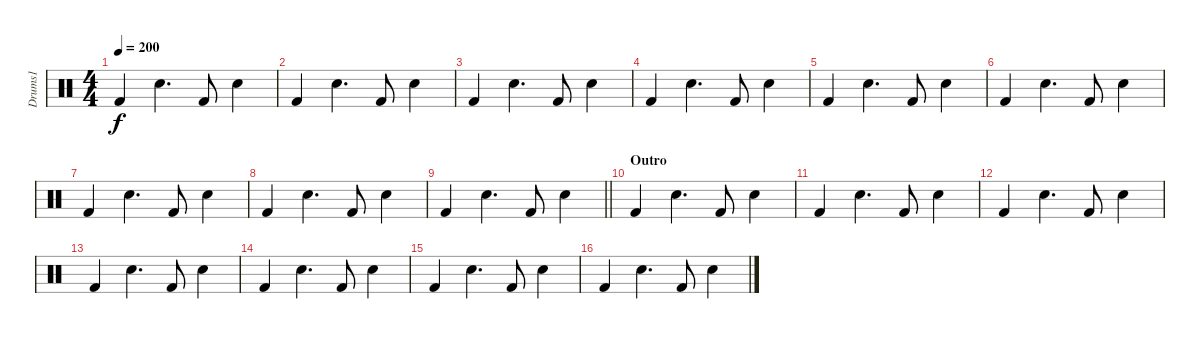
\track ("Drums1" "Drums1") {instrument percussion}
\staff {score}
\articulation defaults
\ts (4 4)
\tempo 200
\clef neutral
\ks c "Kick (hit) 2".4{dy f} "Snare (hit) 2".4{d} "Kick (hit) 2".8 "Snare (hit) 2".4
|
"Kick (hit) 2".4 "Snare (hit) 2".4{d} "Kick (hit) 2".8 "Snare (hit) 2".4 |
"Kick (hit) 2".4 "Snare (hit) 2".4{d} "Kick (hit) 2".8 "Snare (hit) 2".4 |
"Kick (hit) 2".4 "Snare (hit) 2".4{d} "Kick (hit) 2".8 "Snare (hit) 2".4 |
"Kick (hit) 2".4 "Snare (hit) 2".4{d} "Kick (hit) 2".8 "Snare (hit) 2".4 |
"Kick (hit) 2".4 "Snare (hit) 2".4{d} "Kick (hit) 2".8 "Snare (hit) 2".4 |
"Kick (hit) 2".4 "Snare (hit) 2".4{d} "Kick (hit) 2".8 "Snare (hit) 2".4 |
"Kick (hit) 2".4 "Snare (hit) 2".4{d} "Kick (hit) 2".8 "Snare (hit) 2".4 |
\barLineRight lightlight "Kick (hit) 2".4 "Snare (hit) 2".4{d} "Kick (hit) 2".8 "Snare (hit) 2".4
|
\section ("" "Outro")
"Kick (hit) 2".4 "Snare (hit) 2".4{d} "Kick (hit) 2".8 "Snare (hit) 2".4 |
"Kick (hit) 2".4 "Snare (hit) 2".4{d} "Kick (hit) 2".8 "Snare (hit) 2".4 |
"Kick (hit) 2".4 "Snare (hit) 2".4{d} "Kick (hit) 2".8 "Snare (hit) 2".4 |
"Kick (hit) 2".4 "Snare (hit) 2".4{d} "Kick (hit) 2".8 "Snare (hit) 2".4 |
"Kick (hit) 2".4 "Snare (hit) 2".4{d} "Kick (hit) 2".8 "Snare (hit) 2".4 |
"Kick (hit) 2".4 "Snare (hit) 2".4{d} "Kick (hit) 2".8 "Snare (hit) 2".4 |
"Kick (hit) 2".4 "Snare (hit) 2".4{d} "Kick (hit) 2".8 "Snare (hit) 2".4
